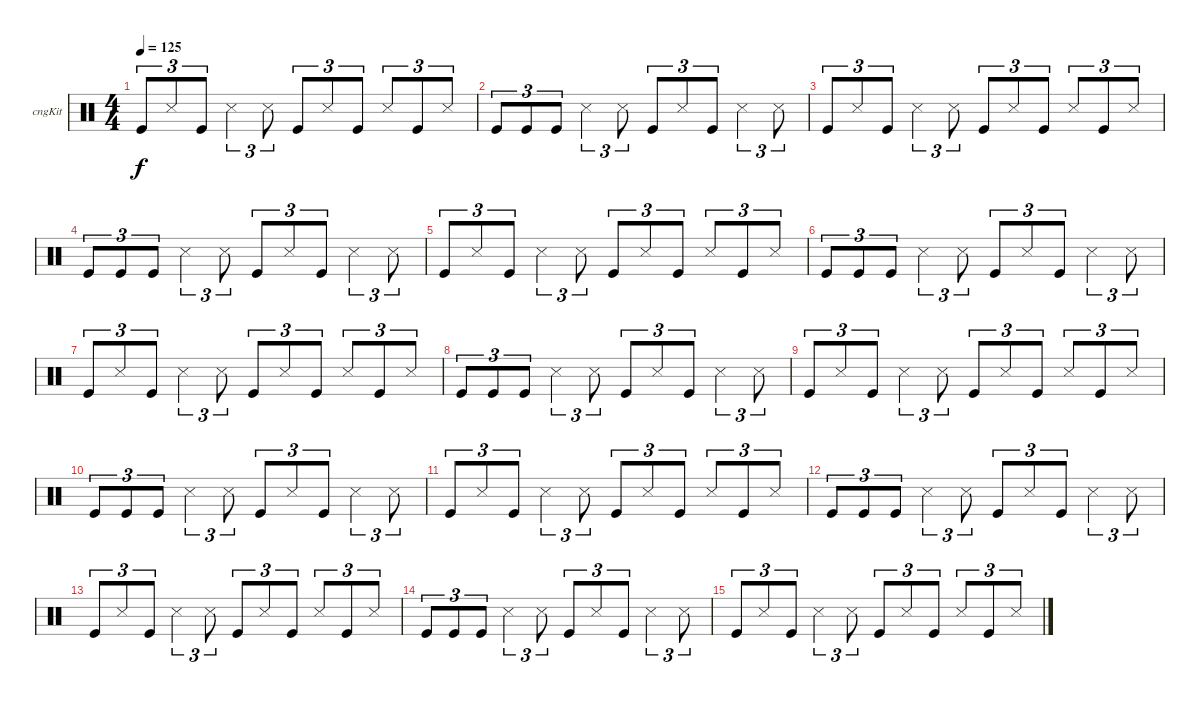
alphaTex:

\defaultSystemsLayout 4
\bracketExtendMode groupsimilarinstruments
\firstSystemTrackNameOrientation horizontal
\otherSystemsTrackNameOrientation horizontal
\track ("Congas" "cngKit") {instrument percussion}
\staff {score}
\articulation defaults
\ts (4 4)
\tempo 125
\clef neutral
\scale
0.333333
\ks c "Kick (hit)".8{tu (3 2) dy f} "Snare (side stick) 3".8{tu (3 2)} "Kick (hit)".8{tu (3 2)} "Snare (side stick) 3".4{tu (3 2)} "Snare (side stick) 3".8{tu (3 2)} "Kick (hit)".8{tu (3 2)} "Snare (side stick) 3".8{tu (3 2)} "Kick (hit)".8{tu (3 2)} "Snare (side stick) 3".8{tu (3 2)} "Kick (hit)".8{tu (3 2)} "Snare (side stick) 3".8{tu (3 2)}
|
\scale
0.333333 "Kick (hit)".8{tu (3 2)} "Kick (hit)".8{tu (3 2)} "Kick (hit)".8{tu (3 2)} "Snare (side stick) 3".4{tu (3 2)} "Snare (side stick) 3".8{tu (3 2)} "Kick (hit)".8{tu (3 2)} "Snare (side stick) 3".8{tu (3 2)} "Kick (hit)".8{tu (3 2)} "Snare (side stick) 3".4{tu (3 2)} "Snare (side stick) 3".8{tu (3 2)} |
\scale
0.333333 "Kick (hit)".8{tu (3 2)} "Snare (side stick) 3".8{tu (3 2)} "Kick (hit)".8{tu (3 2)} "Snare (side stick) 3".4{tu (3 2)} "Snare (side stick) 3".8{tu (3 2)} "Kick (hit)".8{tu (3 2)} "Snare (side stick) 3".8{tu (3 2)} "Kick (hit)".8{tu (3 2)} "Snare (side stick) 3".8{tu (3 2)} "Kick (hit)".8{tu (3 2)} "Snare (side stick) 3".8{tu (3 2)} |
\scale
0.333333 "Kick (hit)".8{tu (3 2)} "Kick (hit)".8{tu (3 2)} "Kick (hit)".8{tu (3 2)} "Snare (side stick) 3".4{tu (3 2)} "Snare (side stick) 3".8{tu (3 2)} "Kick (hit)".8{tu (3 2)} "Snare (side stick) 3".8{tu (3 2)} "Kick (hit)".8{tu (3 2)} "Snare (side stick) 3".4{tu (3 2)} "Snare (side stick) 3".8{tu (3 2)} |
\scale
0.333333 "Kick (hit)".8{tu (3 2)} "Snare (side stick) 3".8{tu (3 2)} "Kick (hit)".8{tu (3 2)} "Snare (side stick) 3".4{tu (3 2)} "Snare (side stick) 3".8{tu (3 2)} "Kick (hit)".8{tu (3 2)} "Snare (side stick) 3".8{tu (3 2)} "Kick (hit)".8{tu (3 2)} "Snare (side stick) 3".8{tu (3 2)} "Kick (hit)".8{tu (3 2)} "Snare (side stick) 3".8{tu (3 2)} |
\scale
0.333333 "Kick (hit)".8{tu (3 2)} "Kick (hit)".8{tu (3 2)} "Kick (hit)".8{tu (3 2)} "Snare (side stick) 3".4{tu (3 2)} "Snare (side stick) 3".8{tu (3 2)} "Kick (hit)".8{tu (3 2)} "Snare (side stick) 3".8{tu (3 2)} "Kick (hit)".8{tu (3 2)} "Snare (side stick) 3".4{tu (3 2)} "Snare (side stick) 3".8{tu (3 2)} |
\scale
0.333333 "Kick (hit)".8{tu (3 2)} "Snare (side stick) 3".8{tu (3 2)} "Kick (hit)".8{tu (3 2)} "Snare (side stick) 3".4{tu (3 2)} "Snare (side stick) 3".8{tu (3 2)} "Kick (hit)".8{tu (3 2)} "Snare (side stick) 3".8{tu (3 2)} "Kick (hit)".8{tu (3 2)} "Snare (side stick) 3".8{tu (3 2)} "Kick (hit)".8{tu (3 2)} "Snare (side stick) 3".8{tu (3 2)} |
\scale
0.333333 "Kick (hit)".8{tu (3 2)} "Kick (hit)".8{tu (3 2)} "Kick (hit)".8{tu (3 2)} "Snare (side stick) 3".4{tu (3 2)} "Snare (side stick) 3".8{tu (3 2)} "Kick (hit)".8{tu (3 2)} "Snare (side stick) 3".8{tu (3 2)} "Kick (hit)".8{tu (3 2)} "Snare (side stick) 3".4{tu (3 2)} "Snare (side stick) 3".8{tu (3 2)} |
\scale
0.333333 "Kick (hit)".8{tu (3 2)} "Snare (side stick) 3".8{tu (3 2)} "Kick (hit)".8{tu (3 2)} "Snare (side stick) 3".4{tu (3 2)} "Snare (side stick) 3".8{tu (3 2)} "Kick (hit)".8{tu (3 2)} "Snare (side stick) 3".8{tu (3 2)} "Kick (hit)".8{tu (3 2)} "Snare (side stick) 3".8{tu (3 2)} "Kick (hit)".8{tu (3 2)} "Snare (side stick) 3".8{tu (3 2)} |
\scale
0.333333 "Kick (hit)".8{tu (3 2)} "Kick (hit)".8{tu (3 2)} "Kick (hit)".8{tu (3 2)} "Snare (side stick) 3".4{tu (3 2)} "Snare (side stick) 3".8{tu (3 2)} "Kick (hit)".8{tu (3 2)} "Snare (side stick) 3".8{tu (3 2)} "Kick (hit)".8{tu (3 2)} "Snare (side stick) 3".4{tu (3 2)} "Snare (side stick) 3".8{tu (3 2)} |
\scale
0.333333 "Kick (hit)".8{tu (3 2)} "Snare (side stick) 3".8{tu (3 2)} "Kick (hit)".8{tu (3 2)} "Snare (side stick) 3".4{tu (3 2)} "Snare (side stick) 3".8{tu (3 2)} "Kick (hit)".8{tu (3 2)} "Snare (side stick) 3".8{tu (3 2)} "Kick (hit)".8{tu (3 2)} "Snare (side stick) 3".8{tu (3 2)} "Kick (hit)".8{tu (3 2)} "Snare (side stick) 3".8{tu (3 2)} |
\scale
0.333333 "Kick (hit)".8{tu (3 2)} "Kick (hit)".8{tu (3 2)} "Kick (hit)".8{tu (3 2)} "Snare (side stick) 3".4{tu (3 2)} "Snare (side stick) 3".8{tu (3 2)} "Kick (hit)".8{tu (3 2)} "Snare (side stick) 3".8{tu (3 2)} "Kick (hit)".8{tu (3 2)} "Snare (side stick) 3".4{tu (3 2)} "Snare (side stick) 3".8{tu (3 2)} |
\scale
0.333333 "Kick (hit)".8{tu (3 2)} "Snare (side stick) 3".8{tu (3 2)} "Kick (hit)".8{tu (3 2)} "Snare (side stick) 3".4{tu (3 2)} "Snare (side stick) 3".8{tu (3 2)} "Kick (hit)".8{tu (3 2)} "Snare (side stick) 3".8{tu (3 2)} "Kick (hit)".8{tu (3 2)} "Snare (side stick) 3".8{tu (3 2)} "Kick (hit)".8{tu (3 2)} "Snare (side stick) 3".8{tu (3 2)} |
\scale
0.333333 "Kick (hit)".8{tu (3 2)} "Kick (hit)".8{tu (3 2)} "Kick (hit)".8{tu (3 2)} "Snare (side stick) 3".4{tu (3 2)} "Snare (side stick) 3".8{tu (3 2)} "Kick (hit)".8{tu (3 2)} "Snare (side stick) 3".8{tu (3 2)} "Kick (hit)".8{tu (3 2)} "Snare (side stick) 3".4{tu (3 2)} "Snare (side stick) 3".8{tu (3 2)} |
\scale
0.333333 "Kick (hit)".8{tu (3 2)} "Snare (side stick) 3".8{tu (3 2)} "Kick (hit)".8{tu (3 2)} "Snare (side stick) 3".4{tu (3 2)} "Snare (side stick) 3".8{tu (3 2)} "Kick (hit)".8{tu (3 2)} "Snare (side stick) 3".8{tu (3 2)} "Kick (hit)".8{tu (3 2)} "Snare (side stick) 3".8{tu (3 2)} "Kick (hit)".8{tu (3 2)} "Snare (side stick) 3".8{tu (3 2)} |
\scale
0.333333
